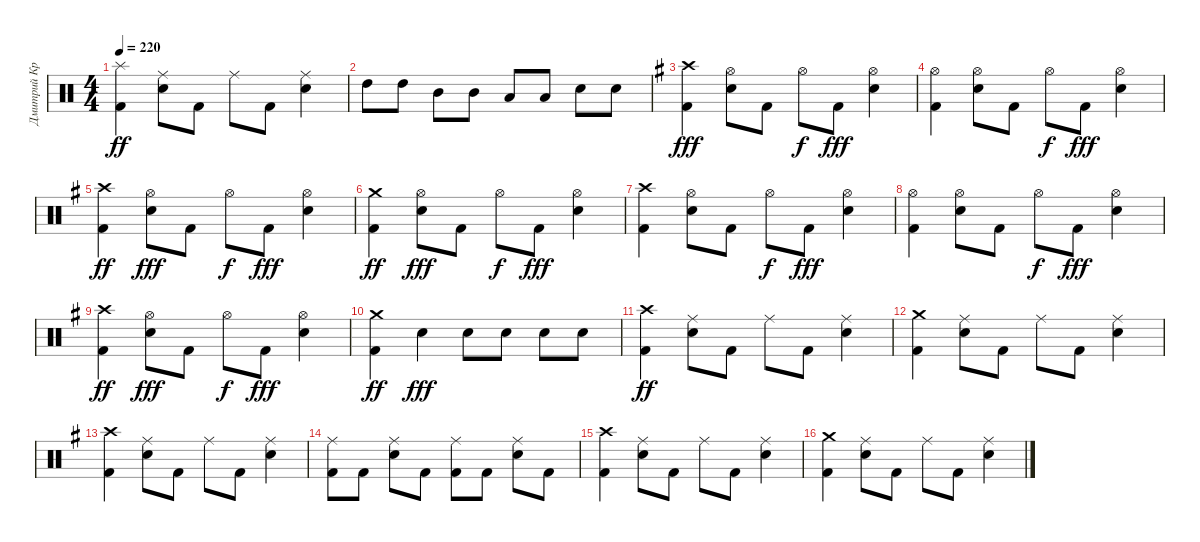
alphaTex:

\track ("Дмитрий Кривенков" "Дмитрий Кр") {instrument percussion}
\staff {score}
\articulation defaults
\ts (4 4)
\tempo 220
\clef neutral
\ks c
("Splash (hit)" "Kick (hit) 2").4{dy ff} ("Ride (middle)" "Snare (hit) 2").8 "Kick (hit) 2".8 "Ride (middle)".8 "Kick (hit) 2".8 ("Ride (middle)" "Snare (hit) 2").4 |
"High Tom (hit)".8 "High Tom (hit)".8 "Mid Tom (hit)".8 "Mid Tom (hit)".8 "Low Tom (hit)".8 "Low Tom (hit)".8 "Snare (hit) 2".8 "Snare (hit) 2".8 |
\ks g
("Crash high (hit)" "Kick (hit) 2").4{dy fff} ("Hi-Hat (open)" "Snare (hit) 2").8 "Kick (hit) 2".8 "Hi-Hat (open)".8{dy f} "Kick (hit) 2".8{dy fff} ("Hi-Hat (open)" "Snare (hit) 2").4 |
("Hi-Hat (open)" "Kick (hit) 2").4 ("Hi-Hat (open)" "Snare (hit) 2").8 "Kick (hit) 2".8 "Hi-Hat (open)".8{dy f} "Kick (hit) 2".8{dy fff} ("Hi-Hat (open)" "Snare (hit) 2").4 |
("Kick (hit) 2" "Crash high (hit)").4{dy ff} ("Snare (hit) 2" "Hi-Hat (open)").8{dy fff} "Kick (hit) 2".8 "Hi-Hat (open)".8{dy f} "Kick (hit) 2".8{dy fff} ("Snare (hit) 2" "Hi-Hat (open)").4 |
("Kick (hit) 2" "Crash medium (hit)").4{dy ff} ("Snare (hit) 2" "Hi-Hat (open)").8{dy fff} "Kick (hit) 2".8 "Hi-Hat (open)".8{dy f} "Kick (hit) 2".8{dy fff} ("Snare (hit) 2" "Hi-Hat (open)").4 |
("Crash high (hit)" "Kick (hit) 2").4 ("Hi-Hat (open)" "Snare (hit) 2").8 "Kick (hit) 2".8 "Hi-Hat (open)".8{dy f} "Kick (hit) 2".8{dy fff} ("Hi-Hat (open)" "Snare (hit) 2").4 |
("Hi-Hat (open)" "Kick (hit) 2").4 ("Hi-Hat (open)" "Snare (hit) 2").8 "Kick (hit) 2".8 "Hi-Hat (open)".8{dy f} "Kick (hit) 2".8{dy fff} ("Hi-Hat (open)" "Snare (hit) 2").4 |
("Kick (hit) 2" "Crash high (hit)").4{dy ff} ("Snare (hit) 2" "Hi-Hat (open)").8{dy fff} "Kick (hit) 2".8 "Hi-Hat (open)".8{dy f} "Kick (hit) 2".8{dy fff} ("Snare (hit) 2" "Hi-Hat (open)").4 |
("Kick (hit) 2" "Crash medium (hit)").4{dy ff} "Snare (hit) 2".4{dy fff} "Snare (hit) 2".8 "Snare (hit) 2".8 "Snare (hit) 2".8 "Snare (hit) 2".8 |
("Kick (hit) 2" "Crash high (hit)").4{dy ff} ("Ride (middle)" "Snare (hit) 2").8 "Kick (hit) 2".8 "Ride (middle)".8 "Kick (hit) 2".8 ("Ride (middle)" "Snare (hit) 2").4 |
("Crash medium (hit)" "Kick (hit) 2").4 ("Snare (hit) 2" "Ride (middle)").8 "Kick (hit) 2".8 "Ride (middle)".8 "Kick (hit) 2".8 ("Snare (hit) 2" "Ride (middle)").4 |
("Kick (hit) 2" "Crash high (hit)").4 ("Ride (middle)" "Snare (hit) 2").8 "Kick (hit) 2".8 "Ride (middle)".8 "Kick (hit) 2".8 ("Ride (middle)" "Snare (hit) 2").4 |
("Ride (middle)" "Kick (hit) 2").8 "Kick (hit) 2".8 ("Ride (middle)" "Snare (hit) 2").8 "Kick (hit) 2".8 ("Ride (middle)" "Kick (hit) 2").8 "Kick (hit) 2".8 ("Ride (middle)" "Snare (hit) 2").8 "Kick (hit) 2".8 |
("Kick (hit) 2" "Crash high (hit)").4 ("Ride (middle)" "Snare (hit) 2").8 "Kick (hit) 2".8 "Ride (middle)".8 "Kick (hit) 2".8 ("Ride (middle)" "Snare (hit) 2").4 |
("Crash medium (hit)" "Kick (hit) 2").4 ("Snare (hit) 2" "Ride (middle)").8 "Kick (hit) 2".8 "Ride (middle)".8 "Kick (hit) 2".8 ("Snare (hit) 2" "Ride (middle)").4
